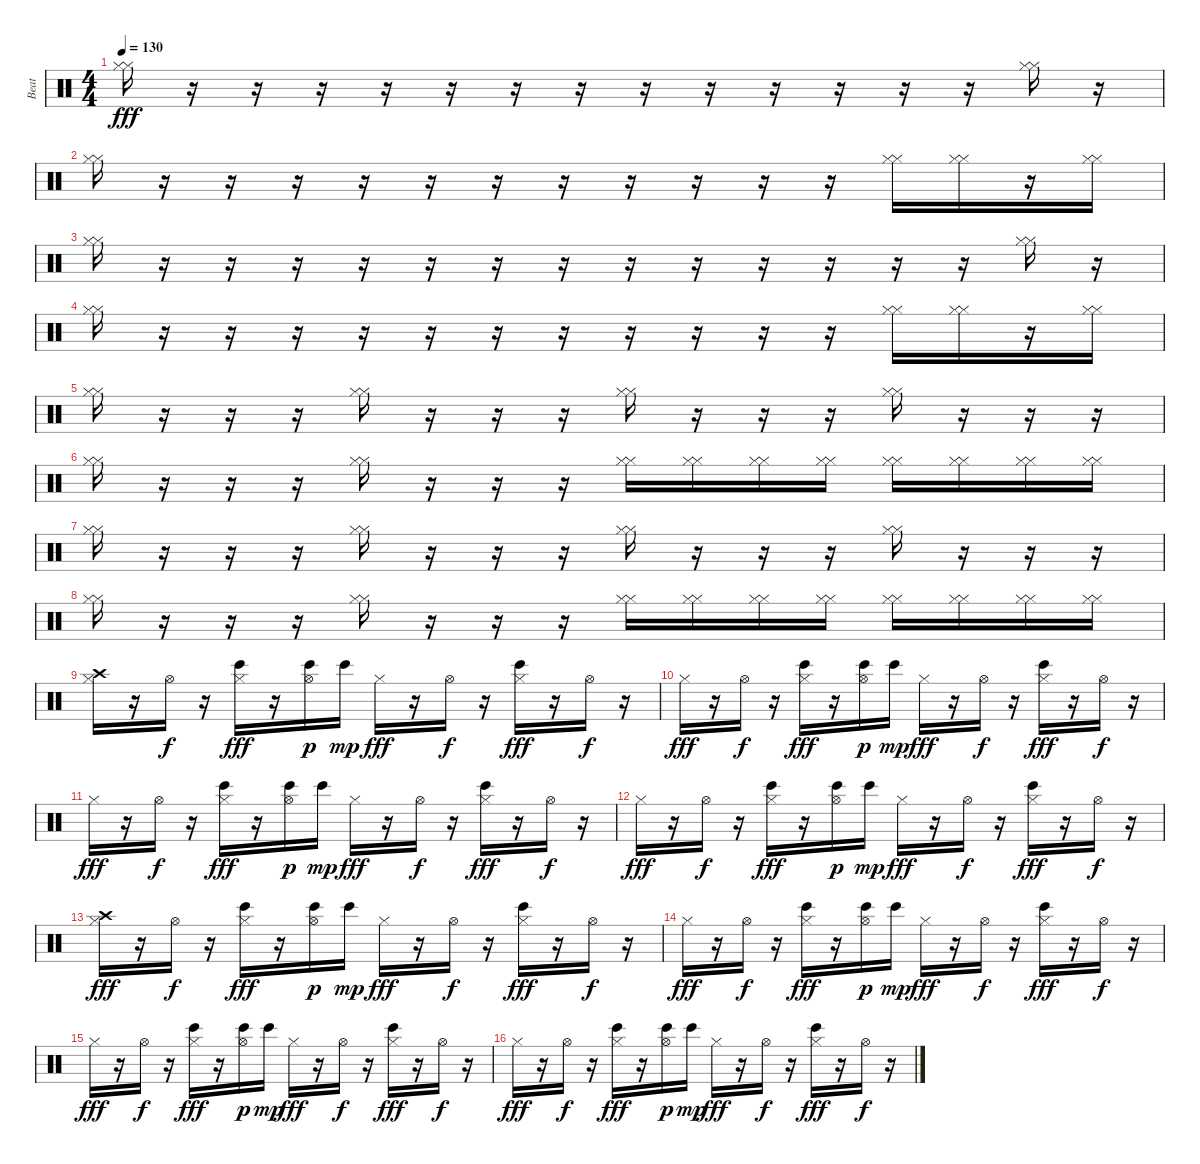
\track ("Beat" "Beat") {instrument percussion}
\staff {score}
\articulation defaults
\ts (4 4)
\tempo 130
\clef neutral
\ks c
("Hi-Hat (closed)" "Hi-Hat (closed)").16{dy fff} r.16 r.16 r.16 r.16 r.16 r.16 r.16 r.16 r.16 r.16 r.16 r.16 r.16 ("Hi-Hat (closed)" "Hi-Hat (closed)").16 r.16 |
("Hi-Hat (closed)" "Hi-Hat (closed)").16 r.16 r.16 r.16 r.16 r.16 r.16 r.16 r.16 r.16 r.16 r.16 ("Hi-Hat (closed)" "Hi-Hat (closed)").16 ("Hi-Hat (closed)" "Hi-Hat (closed)").16 r.16 ("Hi-Hat (closed)" "Hi-Hat (closed)").16 |
("Hi-Hat (closed)" "Hi-Hat (closed)").16 r.16 r.16 r.16 r.16 r.16 r.16 r.16 r.16 r.16 r.16 r.16 r.16 r.16 ("Hi-Hat (closed)" "Hi-Hat (closed)").16 r.16 |
("Hi-Hat (closed)" "Hi-Hat (closed)").16 r.16 r.16 r.16 r.16 r.16 r.16 r.16 r.16 r.16 r.16 r.16 ("Hi-Hat (closed)" "Hi-Hat (closed)").16 ("Hi-Hat (closed)" "Hi-Hat (closed)").16 r.16 ("Hi-Hat (closed)" "Hi-Hat (closed)").16 |
("Hi-Hat (closed)" "Hi-Hat (closed)").16 r.16 r.16 r.16 ("Hi-Hat (closed)" "Hi-Hat (closed)").16 r.16 r.16 r.16 ("Hi-Hat (closed)" "Hi-Hat (closed)").16 r.16 r.16 r.16 ("Hi-Hat (closed)" "Hi-Hat (closed)").16 r.16 r.16 r.16 |
("Hi-Hat (closed)" "Hi-Hat (closed)").16 r.16 r.16 r.16 ("Hi-Hat (closed)" "Hi-Hat (closed)").16 r.16 r.16 r.16 ("Hi-Hat (closed)" "Hi-Hat (closed)").16 ("Hi-Hat (closed)" "Hi-Hat (closed)").16 ("Hi-Hat (closed)" "Hi-Hat (closed)").16 ("Hi-Hat (closed)" "Hi-Hat (closed)").16 ("Hi-Hat (closed)" "Hi-Hat (closed)").16 ("Hi-Hat (closed)" "Hi-Hat (closed)").16 ("Hi-Hat (closed)" "Hi-Hat (closed)").16 ("Hi-Hat (closed)" "Hi-Hat (closed)").16 |
("Hi-Hat (closed)" "Hi-Hat (closed)").16 r.16 r.16 r.16 ("Hi-Hat (closed)" "Hi-Hat (closed)").16 r.16 r.16 r.16 ("Hi-Hat (closed)" "Hi-Hat (closed)").16 r.16 r.16 r.16 ("Hi-Hat (closed)" "Hi-Hat (closed)").16 r.16 r.16 r.16 |
("Hi-Hat (closed)" "Hi-Hat (closed)").16 r.16 r.16 r.16 ("Hi-Hat (closed)" "Hi-Hat (closed)").16 r.16 r.16 r.16 ("Hi-Hat (closed)" "Hi-Hat (closed)").16 ("Hi-Hat (closed)" "Hi-Hat (closed)").16 ("Hi-Hat (closed)" "Hi-Hat (closed)").16 ("Hi-Hat (closed)" "Hi-Hat (closed)").16 ("Hi-Hat (closed)" "Hi-Hat (closed)").16 ("Hi-Hat (closed)" "Hi-Hat (closed)").16 ("Hi-Hat (closed)" "Hi-Hat (closed)").16 ("Hi-Hat (closed)" "Hi-Hat (closed)").16 |
("Crash high (hit)" "Hi-Hat (closed)").16 r.16 "Hi-Hat (open)".16{dy f} r.16 ("Bongo High (hit)" "Hi-Hat (closed)").16{dy fff} r.16 ("Hi-Hat (open)" "Bongo High (hit)").16{dy p} "Bongo High (hit)".16{dy mp} "Hi-Hat (closed)".16{dy fff} r.16 "Hi-Hat (open)".16{dy f} r.16 ("Bongo High (hit)" "Hi-Hat (closed)").16{dy fff} r.16 "Hi-Hat (open)".16{dy f} r.16 |
"Hi-Hat (closed)".16{dy fff} r.16 "Hi-Hat (open)".16{dy f} r.16 ("Bongo High (hit)" "Hi-Hat (closed)").16{dy fff} r.16 ("Hi-Hat (open)" "Bongo High (hit)").16{dy p} "Bongo High (hit)".16{dy mp} "Hi-Hat (closed)".16{dy fff} r.16 "Hi-Hat (open)".16{dy f} r.16 ("Bongo High (hit)" "Hi-Hat (closed)").16{dy fff} r.16 "Hi-Hat (open)".16{dy f} r.16 |
"Hi-Hat (closed)".16{dy fff} r.16 "Hi-Hat (open)".16{dy f} r.16 ("Bongo High (hit)" "Hi-Hat (closed)").16{dy fff} r.16 ("Hi-Hat (open)" "Bongo High (hit)").16{dy p} "Bongo High (hit)".16{dy mp} "Hi-Hat (closed)".16{dy fff} r.16 "Hi-Hat (open)".16{dy f} r.16 ("Bongo High (hit)" "Hi-Hat (closed)").16{dy fff} r.16 "Hi-Hat (open)".16{dy f} r.16 |
"Hi-Hat (closed)".16{dy fff} r.16 "Hi-Hat (open)".16{dy f} r.16 ("Bongo High (hit)" "Hi-Hat (closed)").16{dy fff} r.16 ("Hi-Hat (open)" "Bongo High (hit)").16{dy p} "Bongo High (hit)".16{dy mp} "Hi-Hat (closed)".16{dy fff} r.16 "Hi-Hat (open)".16{dy f} r.16 ("Bongo High (hit)" "Hi-Hat (closed)").16{dy fff} r.16 "Hi-Hat (open)".16{dy f} r.16 |
("Crash high (hit)" "Hi-Hat (closed)").16{dy fff} r.16 "Hi-Hat (open)".16{dy f} r.16 ("Bongo High (hit)" "Hi-Hat (closed)").16{dy fff} r.16 ("Hi-Hat (open)" "Bongo High (hit)").16{dy p} "Bongo High (hit)".16{dy mp} "Hi-Hat (closed)".16{dy fff} r.16 "Hi-Hat (open)".16{dy f} r.16 ("Bongo High (hit)" "Hi-Hat (closed)").16{dy fff} r.16 "Hi-Hat (open)".16{dy f} r.16 |
"Hi-Hat (closed)".16{dy fff} r.16 "Hi-Hat (open)".16{dy f} r.16 ("Bongo High (hit)" "Hi-Hat (closed)").16{dy fff} r.16 ("Hi-Hat (open)" "Bongo High (hit)").16{dy p} "Bongo High (hit)".16{dy mp} "Hi-Hat (closed)".16{dy fff} r.16 "Hi-Hat (open)".16{dy f} r.16 ("Bongo High (hit)" "Hi-Hat (closed)").16{dy fff} r.16 "Hi-Hat (open)".16{dy f} r.16 |
"Hi-Hat (closed)".16{dy fff} r.16 "Hi-Hat (open)".16{dy f} r.16 ("Bongo High (hit)" "Hi-Hat (closed)").16{dy fff} r.16 ("Hi-Hat (open)" "Bongo High (hit)").16{dy p} "Bongo High (hit)".16{dy mp} "Hi-Hat (closed)".16{dy fff} r.16 "Hi-Hat (open)".16{dy f} r.16 ("Bongo High (hit)" "Hi-Hat (closed)").16{dy fff} r.16 "Hi-Hat (open)".16{dy f} r.16 |
"Hi-Hat (closed)".16{dy fff} r.16 "Hi-Hat (open)".16{dy f} r.16 ("Bongo High (hit)" "Hi-Hat (closed)").16{dy fff} r.16 ("Hi-Hat (open)" "Bongo High (hit)").16{dy p} "Bongo High (hit)".16{dy mp} "Hi-Hat (closed)".16{dy fff} r.16 "Hi-Hat (open)".16{dy f} r.16 ("Bongo High (hit)" "Hi-Hat (closed)").16{dy fff} r.16 "Hi-Hat (open)".16{dy f} r.16
